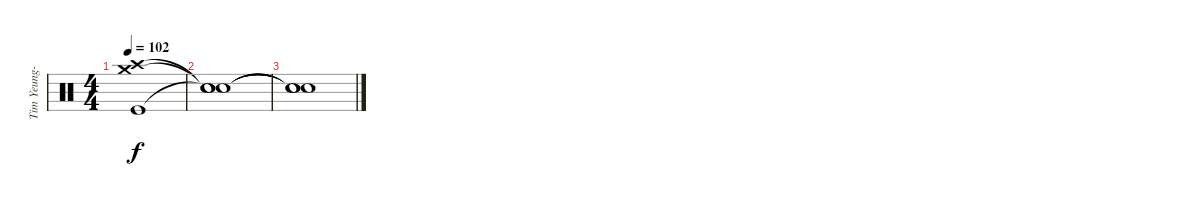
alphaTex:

\track ("Tim Yeung-Drums" "Tim Yeung-") {instrument percussion}
\staff {score}
\articulation defaults
\ts (4 4)
\tempo 102
\clef neutral
\ks c
("Crash high (hit)" "Crash medium (hit)" "Kick (hit)").1{dy f} |
("Snare (hit)"{t} "Snare (hit)"{t} "Snare (hit)"{t}).1 |
("Snare (hit)"{t} "Snare (hit)"{t} "Snare (hit)"{t}).1
